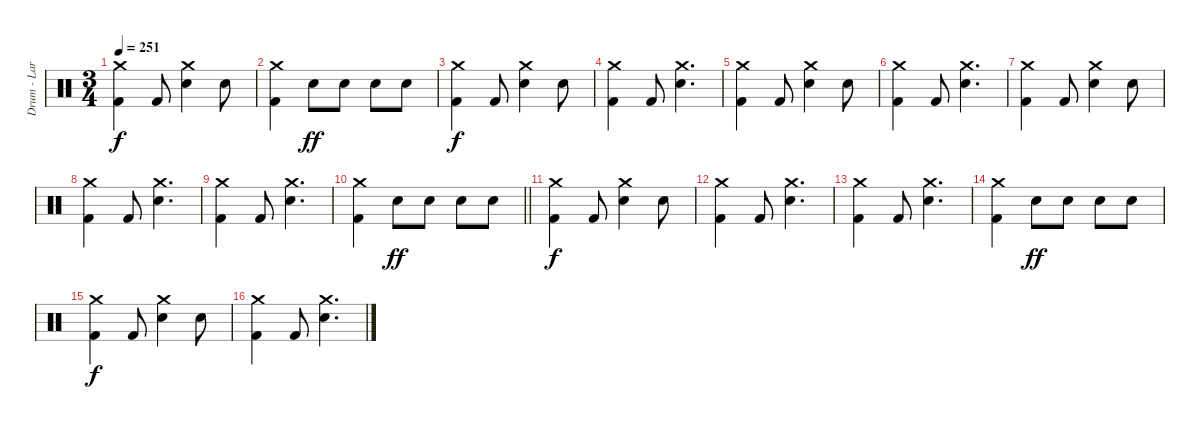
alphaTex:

\track ("Drum - Larzon" "Drum - Lar") {instrument percussion}
\staff {score}
\articulation defaults
\ts (3 4)
\tempo 251
\clef neutral
\ks c
("Kick (hit) 2" "Crash medium (hit)").4{dy f} "Kick (hit) 2".8 ("Snare (hit) 2" "Crash medium (hit)").4 "Snare (hit) 2".8 |
("Kick (hit) 2" "Crash medium (hit)").4 "Electric Snare (hit)".8{dy ff} "Electric Snare (hit)".8 "Electric Snare (hit)".8 "Electric Snare (hit)".8 |
("Kick (hit) 2" "Crash medium (hit)").4{dy f} "Kick (hit) 2".8 ("Snare (hit) 2" "Crash medium (hit)").4 "Snare (hit) 2".8 |
("Kick (hit) 2" "Crash medium (hit)").4 "Kick (hit) 2".8 ("Snare (hit) 2" "Crash medium (hit)").4{d} |
("Kick (hit) 2" "Crash medium (hit)").4 "Kick (hit) 2".8 ("Snare (hit) 2" "Crash medium (hit)").4 "Snare (hit) 2".8 |
("Kick (hit) 2" "Crash medium (hit)").4 "Kick (hit) 2".8 ("Snare (hit) 2" "Crash medium (hit)").4{d} |
("Kick (hit) 2" "Crash medium (hit)").4 "Kick (hit) 2".8 ("Snare (hit) 2" "Crash medium (hit)").4 "Snare (hit) 2".8 |
("Kick (hit) 2" "Crash medium (hit)").4 "Kick (hit) 2".8 ("Snare (hit) 2" "Crash medium (hit)").4{d} |
("Kick (hit) 2" "Crash medium (hit)").4 "Kick (hit) 2".8 ("Snare (hit) 2" "Crash medium (hit)").4{d} |
\barLineRight lightlight
("Kick (hit) 2" "Crash medium (hit)").4 "Electric Snare (hit)".8{dy ff} "Electric Snare (hit)".8 "Electric Snare (hit)".8 "Electric Snare (hit)".8 |
("Kick (hit) 2" "Crash medium (hit)").4{dy f} "Kick (hit) 2".8 ("Snare (hit) 2" "Crash medium (hit)").4 "Snare (hit) 2".8 |
("Kick (hit) 2" "Crash medium (hit)").4 "Kick (hit) 2".8 ("Snare (hit) 2" "Crash medium (hit)").4{d} |
("Kick (hit) 2" "Crash medium (hit)").4 "Kick (hit) 2".8 ("Snare (hit) 2" "Crash medium (hit)").4{d} |
("Kick (hit) 2" "Crash medium (hit)").4 "Electric Snare (hit)".8{dy ff} "Electric Snare (hit)".8 "Electric Snare (hit)".8 "Electric Snare (hit)".8 |
("Kick (hit) 2" "Crash medium (hit)").4{dy f} "Kick (hit) 2".8 ("Snare (hit) 2" "Crash medium (hit)").4 "Snare (hit) 2".8 |
("Kick (hit) 2" "Crash medium (hit)").4 "Kick (hit) 2".8 ("Snare (hit) 2" "Crash medium (hit)").4{d}
